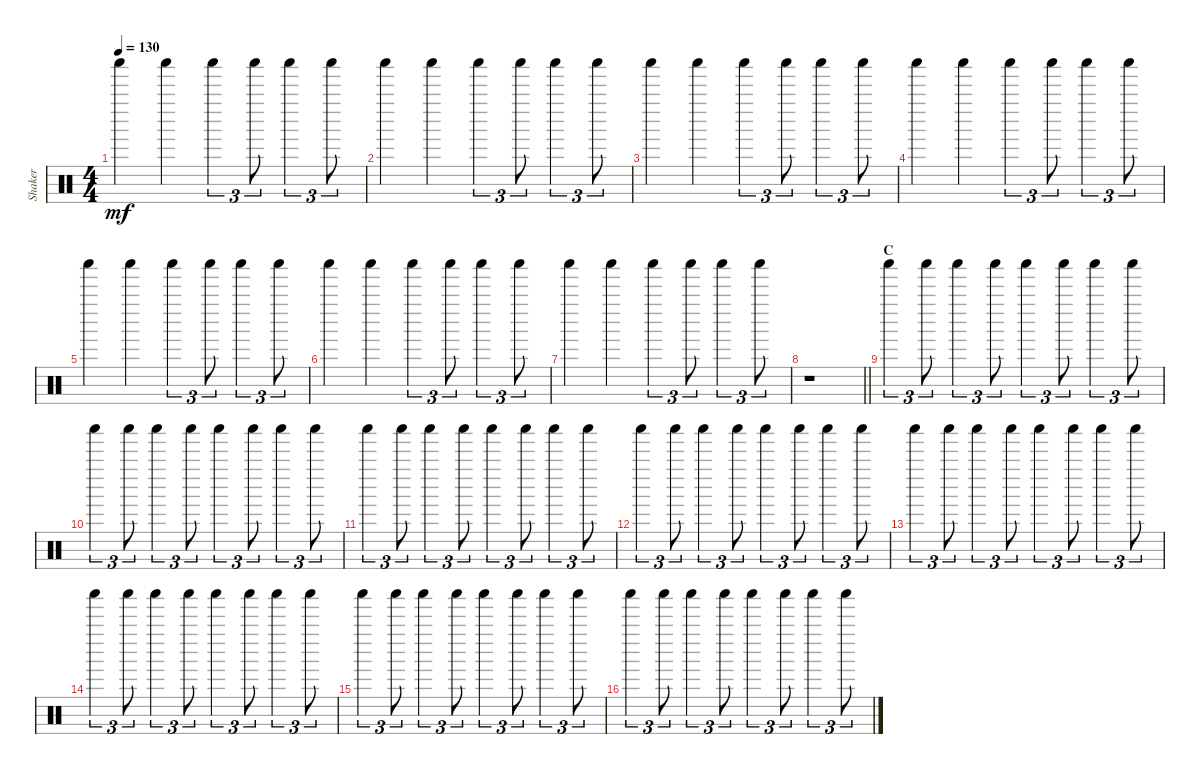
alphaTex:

\track ("Shaker" "Shaker") {instrument percussion}
\staff {score}
\articulation defaults
\ts (4 4)
\tempo 130
\clef neutral
\ks c "Shaker (hit)".4{dy mf} "Shaker (hit)".4 "Shaker (hit)".4{tu (3 2)} "Shaker (hit)".8{tu (3 2)} "Shaker (hit)".4{tu (3 2)} "Shaker (hit)".8{tu (3 2)}
|
"Shaker (hit)".4 "Shaker (hit)".4 "Shaker (hit)".4{tu (3 2)} "Shaker (hit)".8{tu (3 2)} "Shaker (hit)".4{tu (3 2)} "Shaker (hit)".8{tu (3 2)} |
"Shaker (hit)".4 "Shaker (hit)".4 "Shaker (hit)".4{tu (3 2)} "Shaker (hit)".8{tu (3 2)} "Shaker (hit)".4{tu (3 2)} "Shaker (hit)".8{tu (3 2)} |
"Shaker (hit)".4 "Shaker (hit)".4 "Shaker (hit)".4{tu (3 2)} "Shaker (hit)".8{tu (3 2)} "Shaker (hit)".4{tu (3 2)} "Shaker (hit)".8{tu (3 2)} |
"Shaker (hit)".4 "Shaker (hit)".4 "Shaker (hit)".4{tu (3 2)} "Shaker (hit)".8{tu (3 2)} "Shaker (hit)".4{tu (3 2)} "Shaker (hit)".8{tu (3 2)} |
"Shaker (hit)".4 "Shaker (hit)".4 "Shaker (hit)".4{tu (3 2)} "Shaker (hit)".8{tu (3 2)} "Shaker (hit)".4{tu (3 2)} "Shaker (hit)".8{tu (3 2)} |
"Shaker (hit)".4 "Shaker (hit)".4 "Shaker (hit)".4{tu (3 2)} "Shaker (hit)".8{tu (3 2)} "Shaker (hit)".4{tu (3 2)} "Shaker (hit)".8{tu (3 2)} |
\barLineRight lightlight
r.1 |
\section ("" "C")
"Shaker (hit)".4{tu (3 2)} "Shaker (hit)".8{tu (3 2)} "Shaker (hit)".4{tu (3 2)} "Shaker (hit)".8{tu (3 2)} "Shaker (hit)".4{tu (3 2)} "Shaker (hit)".8{tu (3 2)} "Shaker (hit)".4{tu (3 2)} "Shaker (hit)".8{tu (3 2)} |
"Shaker (hit)".4{tu (3 2)} "Shaker (hit)".8{tu (3 2)} "Shaker (hit)".4{tu (3 2)} "Shaker (hit)".8{tu (3 2)} "Shaker (hit)".4{tu (3 2)} "Shaker (hit)".8{tu (3 2)} "Shaker (hit)".4{tu (3 2)} "Shaker (hit)".8{tu (3 2)} |
"Shaker (hit)".4{tu (3 2)} "Shaker (hit)".8{tu (3 2)} "Shaker (hit)".4{tu (3 2)} "Shaker (hit)".8{tu (3 2)} "Shaker (hit)".4{tu (3 2)} "Shaker (hit)".8{tu (3 2)} "Shaker (hit)".4{tu (3 2)} "Shaker (hit)".8{tu (3 2)} |
"Shaker (hit)".4{tu (3 2)} "Shaker (hit)".8{tu (3 2)} "Shaker (hit)".4{tu (3 2)} "Shaker (hit)".8{tu (3 2)} "Shaker (hit)".4{tu (3 2)} "Shaker (hit)".8{tu (3 2)} "Shaker (hit)".4{tu (3 2)} "Shaker (hit)".8{tu (3 2)} |
"Shaker (hit)".4{tu (3 2)} "Shaker (hit)".8{tu (3 2)} "Shaker (hit)".4{tu (3 2)} "Shaker (hit)".8{tu (3 2)} "Shaker (hit)".4{tu (3 2)} "Shaker (hit)".8{tu (3 2)} "Shaker (hit)".4{tu (3 2)} "Shaker (hit)".8{tu (3 2)} |
"Shaker (hit)".4{tu (3 2)} "Shaker (hit)".8{tu (3 2)} "Shaker (hit)".4{tu (3 2)} "Shaker (hit)".8{tu (3 2)} "Shaker (hit)".4{tu (3 2)} "Shaker (hit)".8{tu (3 2)} "Shaker (hit)".4{tu (3 2)} "Shaker (hit)".8{tu (3 2)} |
"Shaker (hit)".4{tu (3 2)} "Shaker (hit)".8{tu (3 2)} "Shaker (hit)".4{tu (3 2)} "Shaker (hit)".8{tu (3 2)} "Shaker (hit)".4{tu (3 2)} "Shaker (hit)".8{tu (3 2)} "Shaker (hit)".4{tu (3 2)} "Shaker (hit)".8{tu (3 2)} |
"Shaker (hit)".4{tu (3 2)} "Shaker (hit)".8{tu (3 2)} "Shaker (hit)".4{tu (3 2)} "Shaker (hit)".8{tu (3 2)} "Shaker (hit)".4{tu (3 2)} "Shaker (hit)".8{tu (3 2)} "Shaker (hit)".4{tu (3 2)} "Shaker (hit)".8{tu (3 2)}
